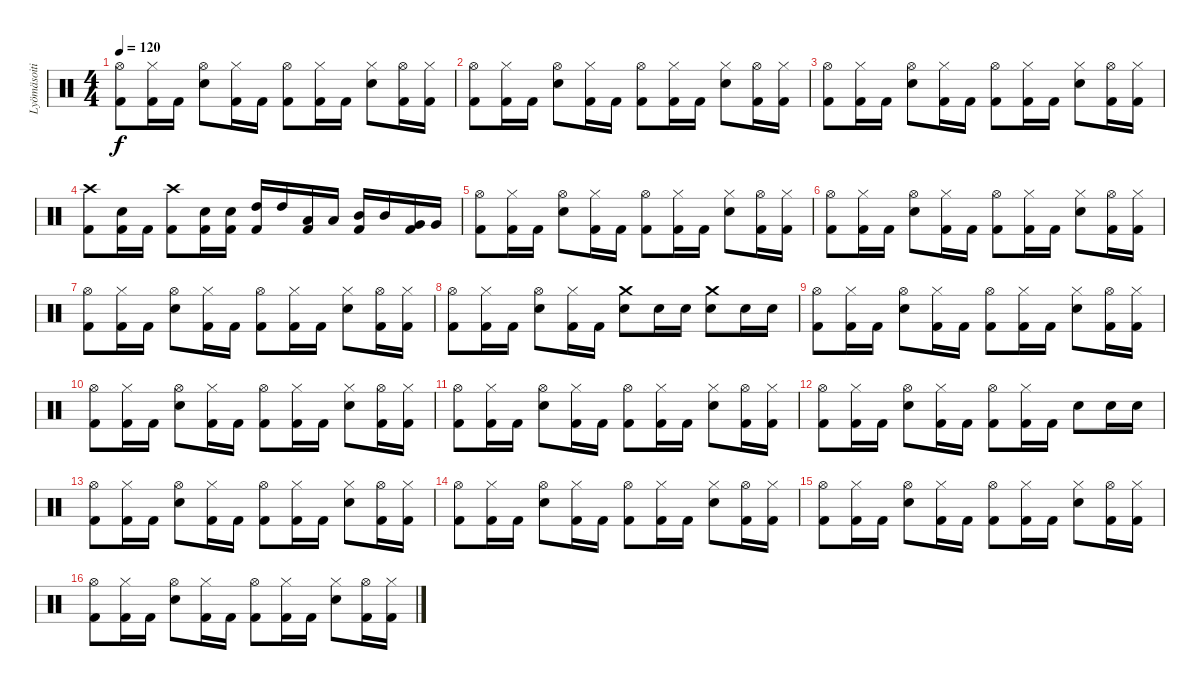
\track ("Lyömäsoitin" "Lyömäsoiti") {instrument percussion}
\staff {score}
\articulation defaults
\ts (4 4)
\tempo 120
\clef neutral
\ks c
("Hi-Hat (open)" "Kick (hit) 2").8{dy f} ("Hi-Hat (closed)" "Kick (hit) 2").16 "Kick (hit) 2".16 ("Hi-Hat (open)" "Electric Snare (hit)").8 ("Hi-Hat (closed)" "Kick (hit) 2").16 "Kick (hit) 2".16 ("Hi-Hat (open)" "Kick (hit) 2").8 ("Hi-Hat (closed)" "Kick (hit) 2").16 "Kick (hit) 2".16 ("Hi-Hat (closed)" "Electric Snare (hit)").8 ("Hi-Hat (open)" "Kick (hit) 2").16 ("Hi-Hat (closed)" "Kick (hit) 2").16 |
("Hi-Hat (open)" "Kick (hit) 2").8 ("Hi-Hat (closed)" "Kick (hit) 2").16 "Kick (hit) 2".16 ("Hi-Hat (open)" "Electric Snare (hit)").8 ("Hi-Hat (closed)" "Kick (hit) 2").16 "Kick (hit) 2".16 ("Hi-Hat (open)" "Kick (hit) 2").8 ("Hi-Hat (closed)" "Kick (hit) 2").16 "Kick (hit) 2".16 ("Hi-Hat (closed)" "Electric Snare (hit)").8 ("Hi-Hat (open)" "Kick (hit) 2").16 ("Hi-Hat (closed)" "Kick (hit) 2").16 |
("Hi-Hat (open)" "Kick (hit) 2").8 ("Hi-Hat (closed)" "Kick (hit) 2").16 "Kick (hit) 2".16 ("Hi-Hat (open)" "Electric Snare (hit)").8 ("Hi-Hat (closed)" "Kick (hit) 2").16 "Kick (hit) 2".16 ("Hi-Hat (open)" "Kick (hit) 2").8 ("Hi-Hat (closed)" "Kick (hit) 2").16 "Kick (hit) 2".16 ("Hi-Hat (closed)" "Electric Snare (hit)").8 ("Hi-Hat (open)" "Kick (hit) 2").16 ("Hi-Hat (closed)" "Kick (hit) 2").16 |
("Crash high (hit)" "Kick (hit) 2").8 ("Snare (hit) 2" "Kick (hit) 2").16 "Kick (hit) 2".16 ("Crash high (hit)" "Kick (hit) 2").8 ("Snare (hit) 2" "Kick (hit) 2").16 ("Snare (hit) 2" "Kick (hit) 2").16 ("High Tom (hit)" "Kick (hit) 2").16 "High Tom (hit)".16 ("Low Tom (hit)" "Kick (hit) 2").16 "Low Tom (hit)".16 ("Mid Tom (hit)" "Kick (hit) 2").16 "Mid Tom (hit)".16 ("Very Low Tom (hit)" "Kick (hit) 2").16 "Very Low Tom (hit)".16 |
("Hi-Hat (open)" "Kick (hit) 2").8 ("Hi-Hat (closed)" "Kick (hit) 2").16 "Kick (hit) 2".16 ("Hi-Hat (open)" "Electric Snare (hit)").8 ("Hi-Hat (closed)" "Kick (hit) 2").16 "Kick (hit) 2".16 ("Hi-Hat (open)" "Kick (hit) 2").8 ("Hi-Hat (closed)" "Kick (hit) 2").16 "Kick (hit) 2".16 ("Hi-Hat (closed)" "Electric Snare (hit)").8 ("Hi-Hat (open)" "Kick (hit) 2").16 ("Hi-Hat (closed)" "Kick (hit) 2").16 |
("Hi-Hat (open)" "Kick (hit) 2").8 ("Hi-Hat (closed)" "Kick (hit) 2").16 "Kick (hit) 2".16 ("Hi-Hat (open)" "Electric Snare (hit)").8 ("Hi-Hat (closed)" "Kick (hit) 2").16 "Kick (hit) 2".16 ("Hi-Hat (open)" "Kick (hit) 2").8 ("Hi-Hat (closed)" "Kick (hit) 2").16 "Kick (hit) 2".16 ("Hi-Hat (closed)" "Electric Snare (hit)").8 ("Hi-Hat (open)" "Kick (hit) 2").16 ("Hi-Hat (closed)" "Kick (hit) 2").16 |
("Hi-Hat (open)" "Kick (hit) 2").8 ("Hi-Hat (closed)" "Kick (hit) 2").16 "Kick (hit) 2".16 ("Hi-Hat (open)" "Electric Snare (hit)").8 ("Hi-Hat (closed)" "Kick (hit) 2").16 "Kick (hit) 2".16 ("Hi-Hat (open)" "Kick (hit) 2").8 ("Hi-Hat (closed)" "Kick (hit) 2").16 "Kick (hit) 2".16 ("Hi-Hat (closed)" "Electric Snare (hit)").8 ("Hi-Hat (open)" "Kick (hit) 2").16 ("Hi-Hat (closed)" "Kick (hit) 2").16 |
("Hi-Hat (open)" "Kick (hit) 2").8 ("Hi-Hat (closed)" "Kick (hit) 2").16 "Kick (hit) 2".16 ("Hi-Hat (open)" "Electric Snare (hit)").8 ("Hi-Hat (closed)" "Kick (hit) 2").16 "Kick (hit) 2".16 ("Crash medium (hit)" "Electric Snare (hit)").8 "Electric Snare (hit)".16 "Electric Snare (hit)".16 ("Crash medium (hit)" "Electric Snare (hit)").8 "Electric Snare (hit)".16 "Electric Snare (hit)".16 |
("Hi-Hat (open)" "Kick (hit) 2").8 ("Hi-Hat (closed)" "Kick (hit) 2").16 "Kick (hit) 2".16 ("Hi-Hat (open)" "Electric Snare (hit)").8 ("Hi-Hat (closed)" "Kick (hit) 2").16 "Kick (hit) 2".16 ("Hi-Hat (open)" "Kick (hit) 2").8 ("Hi-Hat (closed)" "Kick (hit) 2").16 "Kick (hit) 2".16 ("Hi-Hat (closed)" "Electric Snare (hit)").8 ("Hi-Hat (open)" "Kick (hit) 2").16 ("Hi-Hat (closed)" "Kick (hit) 2").16 |
("Hi-Hat (open)" "Kick (hit) 2").8 ("Hi-Hat (closed)" "Kick (hit) 2").16 "Kick (hit) 2".16 ("Hi-Hat (open)" "Electric Snare (hit)").8 ("Hi-Hat (closed)" "Kick (hit) 2").16 "Kick (hit) 2".16 ("Hi-Hat (open)" "Kick (hit) 2").8 ("Hi-Hat (closed)" "Kick (hit) 2").16 "Kick (hit) 2".16 ("Hi-Hat (closed)" "Electric Snare (hit)").8 ("Hi-Hat (open)" "Kick (hit) 2").16 ("Hi-Hat (closed)" "Kick (hit) 2").16 |
("Hi-Hat (open)" "Kick (hit) 2").8 ("Hi-Hat (closed)" "Kick (hit) 2").16 "Kick (hit) 2".16 ("Hi-Hat (open)" "Electric Snare (hit)").8 ("Hi-Hat (closed)" "Kick (hit) 2").16 "Kick (hit) 2".16 ("Hi-Hat (open)" "Kick (hit) 2").8 ("Hi-Hat (closed)" "Kick (hit) 2").16 "Kick (hit) 2".16 ("Hi-Hat (closed)" "Electric Snare (hit)").8 ("Hi-Hat (open)" "Kick (hit) 2").16 ("Hi-Hat (closed)" "Kick (hit) 2").16 |
("Hi-Hat (open)" "Kick (hit) 2").8 ("Hi-Hat (closed)" "Kick (hit) 2").16 "Kick (hit) 2".16 ("Hi-Hat (open)" "Electric Snare (hit)").8 ("Hi-Hat (closed)" "Kick (hit) 2").16 "Kick (hit) 2".16 ("Hi-Hat (open)" "Kick (hit) 2").8 ("Hi-Hat (closed)" "Kick (hit) 2").16 "Kick (hit) 2".16 "Electric Snare (hit)".8 "Electric Snare (hit)".16 "Electric Snare (hit)".16 |
("Hi-Hat (open)" "Kick (hit) 2").8 ("Hi-Hat (closed)" "Kick (hit) 2").16 "Kick (hit) 2".16 ("Hi-Hat (open)" "Electric Snare (hit)").8 ("Hi-Hat (closed)" "Kick (hit) 2").16 "Kick (hit) 2".16 ("Hi-Hat (open)" "Kick (hit) 2").8 ("Hi-Hat (closed)" "Kick (hit) 2").16 "Kick (hit) 2".16 ("Hi-Hat (closed)" "Electric Snare (hit)").8 ("Hi-Hat (open)" "Kick (hit) 2").16 ("Hi-Hat (closed)" "Kick (hit) 2").16 |
("Hi-Hat (open)" "Kick (hit) 2").8 ("Hi-Hat (closed)" "Kick (hit) 2").16 "Kick (hit) 2".16 ("Hi-Hat (open)" "Electric Snare (hit)").8 ("Hi-Hat (closed)" "Kick (hit) 2").16 "Kick (hit) 2".16 ("Hi-Hat (open)" "Kick (hit) 2").8 ("Hi-Hat (closed)" "Kick (hit) 2").16 "Kick (hit) 2".16 ("Hi-Hat (closed)" "Electric Snare (hit)").8 ("Hi-Hat (open)" "Kick (hit) 2").16 ("Hi-Hat (closed)" "Kick (hit) 2").16 |
("Hi-Hat (open)" "Kick (hit) 2").8 ("Hi-Hat (closed)" "Kick (hit) 2").16 "Kick (hit) 2".16 ("Hi-Hat (open)" "Electric Snare (hit)").8 ("Hi-Hat (closed)" "Kick (hit) 2").16 "Kick (hit) 2".16 ("Hi-Hat (open)" "Kick (hit) 2").8 ("Hi-Hat (closed)" "Kick (hit) 2").16 "Kick (hit) 2".16 ("Hi-Hat (closed)" "Electric Snare (hit)").8 ("Hi-Hat (open)" "Kick (hit) 2").16 ("Hi-Hat (closed)" "Kick (hit) 2").16 |
("Hi-Hat (open)" "Kick (hit) 2").8 ("Hi-Hat (closed)" "Kick (hit) 2").16 "Kick (hit) 2".16 ("Hi-Hat (open)" "Electric Snare (hit)").8 ("Hi-Hat (closed)" "Kick (hit) 2").16 "Kick (hit) 2".16 ("Hi-Hat (open)" "Kick (hit) 2").8 ("Hi-Hat (closed)" "Kick (hit) 2").16 "Kick (hit) 2".16 ("Hi-Hat (closed)" "Electric Snare (hit)").8 ("Hi-Hat (open)" "Kick (hit) 2").16 ("Hi-Hat (closed)" "Kick (hit) 2").16
